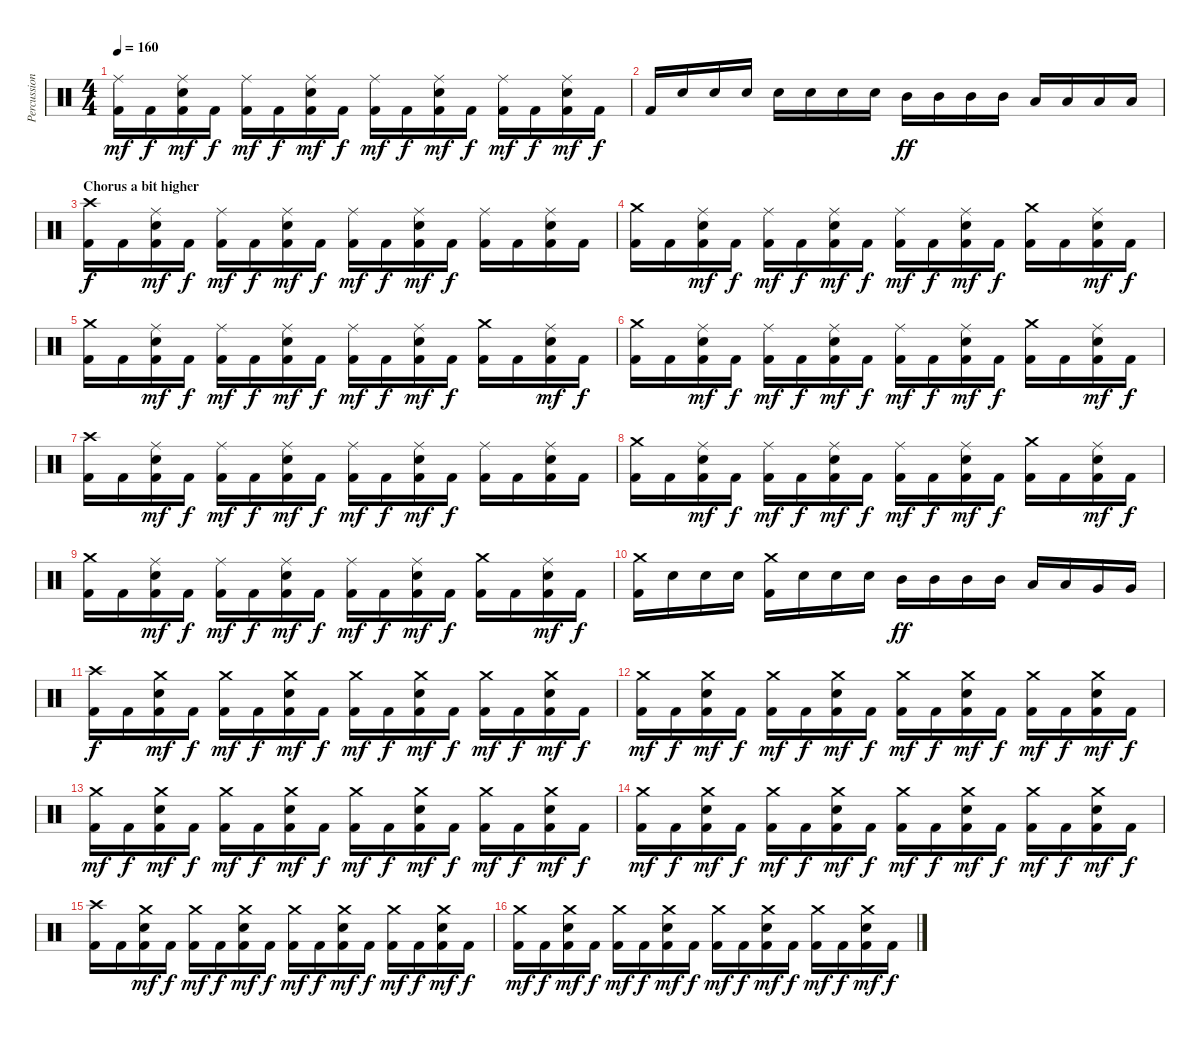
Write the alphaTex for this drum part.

\track ("Percussion" "Percussion") {instrument percussion}
\staff {score}
\articulation defaults
\ts (4 4)
\tempo 160
\clef neutral
\ks c
("Ride (middle)" "Kick (hit) 2").16{dy mf} "Kick (hit) 2".16{dy f} ("Ride (middle)" "Electric Snare (hit)" "Kick (hit) 2").16{dy mf} "Kick (hit) 2".16{dy f} ("Ride (middle)" "Kick (hit) 2").16{dy mf} "Kick (hit) 2".16{dy f} ("Ride (middle)" "Electric Snare (hit)" "Kick (hit) 2").16{dy mf} "Kick (hit) 2".16{dy f} ("Ride (middle)" "Kick (hit) 2").16{dy mf} "Kick (hit) 2".16{dy f} ("Ride (middle)" "Electric Snare (hit)" "Kick (hit) 2").16{dy mf} "Kick (hit) 2".16{dy f} ("Ride (middle)" "Kick (hit) 2").16{dy mf} "Kick (hit) 2".16{dy f} ("Ride (middle)" "Electric Snare (hit)" "Kick (hit) 2").16{dy mf} "Kick (hit) 2".16{dy f} |
"Kick (hit) 2".16 "Electric Snare (hit)".16 "Electric Snare (hit)".16 "Electric Snare (hit)".16 "Electric Snare (hit)".16 "Electric Snare (hit)".16 "Electric Snare (hit)".16 "Electric Snare (hit)".16 "Mid Tom (hit)".16{dy ff} "Mid Tom (hit)".16 "Mid Tom (hit)".16 "Mid Tom (hit)".16 "Low Tom (hit)".16 "Low Tom (hit)".16 "Low Tom (hit)".16 "Low Tom (hit)".16 |
\section ("" "Chorus a bit higher")
("Crash high (hit)" "Kick (hit) 2").16{dy f} "Kick (hit) 2".16 ("Ride (middle)" "Electric Snare (hit)" "Kick (hit) 2").16{dy mf} "Kick (hit) 2".16{dy f} ("Ride (middle)" "Kick (hit) 2").16{dy mf} "Kick (hit) 2".16{dy f} ("Ride (middle)" "Electric Snare (hit)" "Kick (hit) 2").16{dy mf} "Kick (hit) 2".16{dy f} ("Ride (middle)" "Kick (hit) 2").16{dy mf} "Kick (hit) 2".16{dy f} ("Ride (middle)" "Electric Snare (hit)" "Kick (hit) 2").16{dy mf} "Kick (hit) 2".16{dy f} ("Ride (middle)" "Kick (hit) 2").16 "Kick (hit) 2".16 ("Ride (middle)" "Electric Snare (hit)" "Kick (hit) 2").16 "Kick (hit) 2".16 |
("Crash medium (hit)" "Kick (hit) 2").16 "Kick (hit) 2".16 ("Ride (middle)" "Electric Snare (hit)" "Kick (hit) 2").16{dy mf} "Kick (hit) 2".16{dy f} ("Ride (middle)" "Kick (hit) 2").16{dy mf} "Kick (hit) 2".16{dy f} ("Ride (middle)" "Electric Snare (hit)" "Kick (hit) 2").16{dy mf} "Kick (hit) 2".16{dy f} ("Ride (middle)" "Kick (hit) 2").16{dy mf} "Kick (hit) 2".16{dy f} ("Ride (middle)" "Electric Snare (hit)" "Kick (hit) 2").16{dy mf} "Kick (hit) 2".16{dy f} ("Crash medium (hit)" "Kick (hit) 2").16 "Kick (hit) 2".16 ("Ride (middle)" "Electric Snare (hit)" "Kick (hit) 2").16{dy mf} "Kick (hit) 2".16{dy f} |
("Crash medium (hit)" "Kick (hit) 2").16 "Kick (hit) 2".16 ("Ride (middle)" "Electric Snare (hit)" "Kick (hit) 2").16{dy mf} "Kick (hit) 2".16{dy f} ("Ride (middle)" "Kick (hit) 2").16{dy mf} "Kick (hit) 2".16{dy f} ("Ride (middle)" "Electric Snare (hit)" "Kick (hit) 2").16{dy mf} "Kick (hit) 2".16{dy f} ("Ride (middle)" "Kick (hit) 2").16{dy mf} "Kick (hit) 2".16{dy f} ("Ride (middle)" "Electric Snare (hit)" "Kick (hit) 2").16{dy mf} "Kick (hit) 2".16{dy f} ("Crash medium (hit)" "Kick (hit) 2").16 "Kick (hit) 2".16 ("Ride (middle)" "Electric Snare (hit)" "Kick (hit) 2").16{dy mf} "Kick (hit) 2".16{dy f} |
("Crash medium (hit)" "Kick (hit) 2").16 "Kick (hit) 2".16 ("Ride (middle)" "Electric Snare (hit)" "Kick (hit) 2").16{dy mf} "Kick (hit) 2".16{dy f} ("Ride (middle)" "Kick (hit) 2").16{dy mf} "Kick (hit) 2".16{dy f} ("Ride (middle)" "Electric Snare (hit)" "Kick (hit) 2").16{dy mf} "Kick (hit) 2".16{dy f} ("Ride (middle)" "Kick (hit) 2").16{dy mf} "Kick (hit) 2".16{dy f} ("Ride (middle)" "Electric Snare (hit)" "Kick (hit) 2").16{dy mf} "Kick (hit) 2".16{dy f} ("Crash medium (hit)" "Kick (hit) 2").16 "Kick (hit) 2".16 ("Ride (middle)" "Electric Snare (hit)" "Kick (hit) 2").16{dy mf} "Kick (hit) 2".16{dy f} |
("Crash high (hit)" "Kick (hit) 2").16 "Kick (hit) 2".16 ("Ride (middle)" "Electric Snare (hit)" "Kick (hit) 2").16{dy mf} "Kick (hit) 2".16{dy f} ("Ride (middle)" "Kick (hit) 2").16{dy mf} "Kick (hit) 2".16{dy f} ("Ride (middle)" "Electric Snare (hit)" "Kick (hit) 2").16{dy mf} "Kick (hit) 2".16{dy f} ("Ride (middle)" "Kick (hit) 2").16{dy mf} "Kick (hit) 2".16{dy f} ("Ride (middle)" "Electric Snare (hit)" "Kick (hit) 2").16{dy mf} "Kick (hit) 2".16{dy f} ("Ride (middle)" "Kick (hit) 2").16 "Kick (hit) 2".16 ("Ride (middle)" "Electric Snare (hit)" "Kick (hit) 2").16 "Kick (hit) 2".16 |
("Crash medium (hit)" "Kick (hit) 2").16 "Kick (hit) 2".16 ("Ride (middle)" "Electric Snare (hit)" "Kick (hit) 2").16{dy mf} "Kick (hit) 2".16{dy f} ("Ride (middle)" "Kick (hit) 2").16{dy mf} "Kick (hit) 2".16{dy f} ("Ride (middle)" "Electric Snare (hit)" "Kick (hit) 2").16{dy mf} "Kick (hit) 2".16{dy f} ("Ride (middle)" "Kick (hit) 2").16{dy mf} "Kick (hit) 2".16{dy f} ("Ride (middle)" "Electric Snare (hit)" "Kick (hit) 2").16{dy mf} "Kick (hit) 2".16{dy f} ("Crash medium (hit)" "Kick (hit) 2").16 "Kick (hit) 2".16 ("Ride (middle)" "Electric Snare (hit)" "Kick (hit) 2").16{dy mf} "Kick (hit) 2".16{dy f} |
("Crash medium (hit)" "Kick (hit) 2").16 "Kick (hit) 2".16 ("Ride (middle)" "Electric Snare (hit)" "Kick (hit) 2").16{dy mf} "Kick (hit) 2".16{dy f} ("Ride (middle)" "Kick (hit) 2").16{dy mf} "Kick (hit) 2".16{dy f} ("Ride (middle)" "Electric Snare (hit)" "Kick (hit) 2").16{dy mf} "Kick (hit) 2".16{dy f} ("Ride (middle)" "Kick (hit) 2").16{dy mf} "Kick (hit) 2".16{dy f} ("Ride (middle)" "Electric Snare (hit)" "Kick (hit) 2").16{dy mf} "Kick (hit) 2".16{dy f} ("Crash medium (hit)" "Kick (hit) 2").16 "Kick (hit) 2".16 ("Ride (middle)" "Electric Snare (hit)" "Kick (hit) 2").16{dy mf} "Kick (hit) 2".16{dy f} |
("Crash medium (hit)" "Kick (hit) 2").16 "Electric Snare (hit)".16 "Electric Snare (hit)".16 "Electric Snare (hit)".16 ("Crash medium (hit)" "Kick (hit) 2").16 "Electric Snare (hit)".16 "Electric Snare (hit)".16 "Electric Snare (hit)".16 "Mid Tom (hit)".16{dy ff} "Mid Tom (hit)".16 "Mid Tom (hit)".16 "Mid Tom (hit)".16 "Low Tom (hit)".16 "Low Tom (hit)".16 "Very Low Tom (hit)".16 "Very Low Tom (hit)".16 |
("Crash high (hit)" "Kick (hit) 2").16{dy f} "Kick (hit) 2".16 ("Crash medium (hit)" "Electric Snare (hit)" "Kick (hit) 2").16{dy mf} "Kick (hit) 2".16{dy f} ("Crash medium (hit)" "Kick (hit) 2").16{dy mf} "Kick (hit) 2".16{dy f} ("Crash medium (hit)" "Electric Snare (hit)" "Kick (hit) 2").16{dy mf} "Kick (hit) 2".16{dy f} ("Crash medium (hit)" "Kick (hit) 2").16{dy mf} "Kick (hit) 2".16{dy f} ("Crash medium (hit)" "Electric Snare (hit)" "Kick (hit) 2").16{dy mf} "Kick (hit) 2".16{dy f} ("Crash medium (hit)" "Kick (hit) 2").16{dy mf} "Kick (hit) 2".16{dy f} ("Crash medium (hit)" "Electric Snare (hit)" "Kick (hit) 2").16{dy mf} "Kick (hit) 2".16{dy f} |
("Crash medium (hit)" "Kick (hit) 2").16{dy mf} "Kick (hit) 2".16{dy f} ("Crash medium (hit)" "Electric Snare (hit)" "Kick (hit) 2").16{dy mf} "Kick (hit) 2".16{dy f} ("Crash medium (hit)" "Kick (hit) 2").16{dy mf} "Kick (hit) 2".16{dy f} ("Crash medium (hit)" "Electric Snare (hit)" "Kick (hit) 2").16{dy mf} "Kick (hit) 2".16{dy f} ("Crash medium (hit)" "Kick (hit) 2").16{dy mf} "Kick (hit) 2".16{dy f} ("Crash medium (hit)" "Electric Snare (hit)" "Kick (hit) 2").16{dy mf} "Kick (hit) 2".16{dy f} ("Crash medium (hit)" "Kick (hit) 2").16{dy mf} "Kick (hit) 2".16{dy f} ("Crash medium (hit)" "Electric Snare (hit)" "Kick (hit) 2").16{dy mf} "Kick (hit) 2".16{dy f} |
("Crash medium (hit)" "Kick (hit) 2").16{dy mf} "Kick (hit) 2".16{dy f} ("Crash medium (hit)" "Electric Snare (hit)" "Kick (hit) 2").16{dy mf} "Kick (hit) 2".16{dy f} ("Crash medium (hit)" "Kick (hit) 2").16{dy mf} "Kick (hit) 2".16{dy f} ("Crash medium (hit)" "Electric Snare (hit)" "Kick (hit) 2").16{dy mf} "Kick (hit) 2".16{dy f} ("Crash medium (hit)" "Kick (hit) 2").16{dy mf} "Kick (hit) 2".16{dy f} ("Crash medium (hit)" "Electric Snare (hit)" "Kick (hit) 2").16{dy mf} "Kick (hit) 2".16{dy f} ("Crash medium (hit)" "Kick (hit) 2").16{dy mf} "Kick (hit) 2".16{dy f} ("Crash medium (hit)" "Electric Snare (hit)" "Kick (hit) 2").16{dy mf} "Kick (hit) 2".16{dy f} |
("Crash medium (hit)" "Kick (hit) 2").16{dy mf} "Kick (hit) 2".16{dy f} ("Crash medium (hit)" "Electric Snare (hit)" "Kick (hit) 2").16{dy mf} "Kick (hit) 2".16{dy f} ("Crash medium (hit)" "Kick (hit) 2").16{dy mf} "Kick (hit) 2".16{dy f} ("Crash medium (hit)" "Electric Snare (hit)" "Kick (hit) 2").16{dy mf} "Kick (hit) 2".16{dy f} ("Crash medium (hit)" "Kick (hit) 2").16{dy mf} "Kick (hit) 2".16{dy f} ("Crash medium (hit)" "Electric Snare (hit)" "Kick (hit) 2").16{dy mf} "Kick (hit) 2".16{dy f} ("Crash medium (hit)" "Kick (hit) 2").16{dy mf} "Kick (hit) 2".16{dy f} ("Crash medium (hit)" "Electric Snare (hit)" "Kick (hit) 2").16{dy mf} "Kick (hit) 2".16{dy f} |
("Crash high (hit)" "Kick (hit) 2").16 "Kick (hit) 2".16 ("Crash medium (hit)" "Electric Snare (hit)" "Kick (hit) 2").16{dy mf} "Kick (hit) 2".16{dy f} ("Crash medium (hit)" "Kick (hit) 2").16{dy mf} "Kick (hit) 2".16{dy f} ("Crash medium (hit)" "Electric Snare (hit)" "Kick (hit) 2").16{dy mf} "Kick (hit) 2".16{dy f} ("Crash medium (hit)" "Kick (hit) 2").16{dy mf} "Kick (hit) 2".16{dy f} ("Crash medium (hit)" "Electric Snare (hit)" "Kick (hit) 2").16{dy mf} "Kick (hit) 2".16{dy f} ("Crash medium (hit)" "Kick (hit) 2").16{dy mf} "Kick (hit) 2".16{dy f} ("Crash medium (hit)" "Electric Snare (hit)" "Kick (hit) 2").16{dy mf} "Kick (hit) 2".16{dy f} |
("Crash medium (hit)" "Kick (hit) 2").16{dy mf} "Kick (hit) 2".16{dy f} ("Crash medium (hit)" "Electric Snare (hit)" "Kick (hit) 2").16{dy mf} "Kick (hit) 2".16{dy f} ("Crash medium (hit)" "Kick (hit) 2").16{dy mf} "Kick (hit) 2".16{dy f} ("Crash medium (hit)" "Electric Snare (hit)" "Kick (hit) 2").16{dy mf} "Kick (hit) 2".16{dy f} ("Crash medium (hit)" "Kick (hit) 2").16{dy mf} "Kick (hit) 2".16{dy f} ("Crash medium (hit)" "Electric Snare (hit)" "Kick (hit) 2").16{dy mf} "Kick (hit) 2".16{dy f} ("Crash medium (hit)" "Kick (hit) 2").16{dy mf} "Kick (hit) 2".16{dy f} ("Crash medium (hit)" "Electric Snare (hit)" "Kick (hit) 2").16{dy mf} "Kick (hit) 2".16{dy f}
